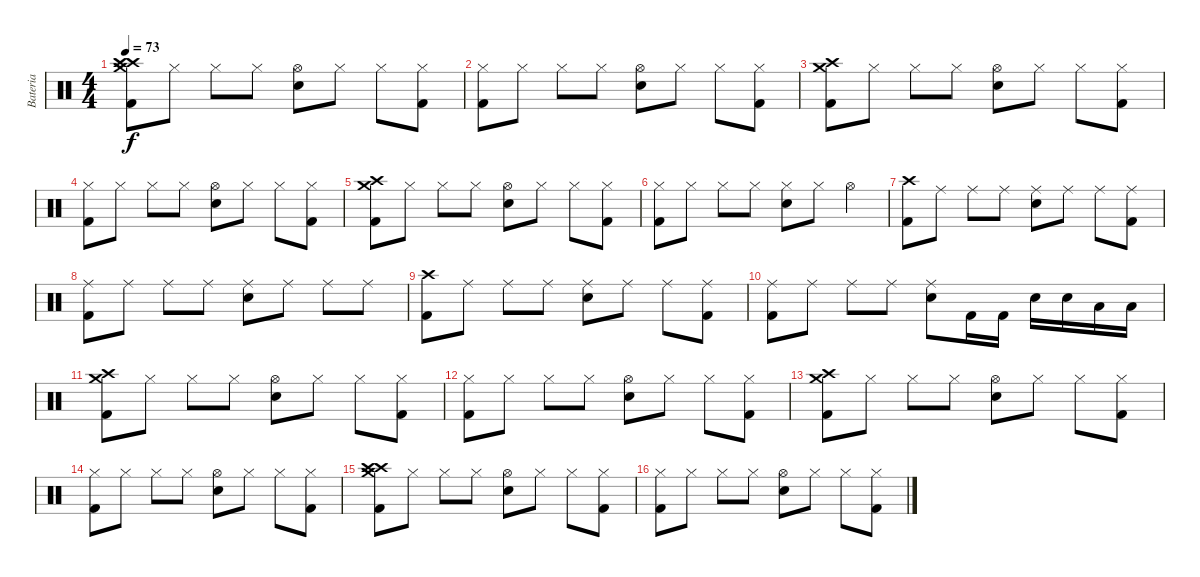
\track ("Bateria" "Bateria") {instrument percussion}
\staff {score}
\articulation defaults
\ts (4 4)
\tempo 73
\clef neutral
\ks c
("Crash high (hit)" "Crash high (hit)" "Crash medium (hit)" "Kick (hit) 2").8{dy f} "Hi-Hat (closed)".8 "Hi-Hat (closed)".8 "Hi-Hat (closed)".8 ("Hi-Hat (open)" "Snare (hit) 2").8 "Hi-Hat (closed)".8 "Hi-Hat (closed)".8 ("Hi-Hat (closed)" "Kick (hit) 2").8 |
("Hi-Hat (closed)" "Kick (hit) 2").8 "Hi-Hat (closed)".8 "Hi-Hat (closed)".8 "Hi-Hat (closed)".8 ("Hi-Hat (open)" "Snare (hit) 2").8 "Hi-Hat (closed)".8 "Hi-Hat (closed)".8 ("Hi-Hat (closed)" "Kick (hit) 2").8 |
("Crash high (hit)" "Crash medium (hit)" "Kick (hit) 2").8 "Hi-Hat (closed)".8 "Hi-Hat (closed)".8 "Hi-Hat (closed)".8 ("Hi-Hat (open)" "Snare (hit) 2").8 "Hi-Hat (closed)".8 "Hi-Hat (closed)".8 ("Hi-Hat (closed)" "Kick (hit) 2").8 |
("Hi-Hat (closed)" "Kick (hit) 2").8 "Hi-Hat (closed)".8 "Hi-Hat (closed)".8 "Hi-Hat (closed)".8 ("Hi-Hat (open)" "Snare (hit) 2").8 "Hi-Hat (closed)".8 "Hi-Hat (closed)".8 ("Hi-Hat (closed)" "Kick (hit) 2").8 |
("Crash high (hit)" "Crash medium (hit)" "Kick (hit) 2").8 "Hi-Hat (closed)".8 "Hi-Hat (closed)".8 "Hi-Hat (closed)".8 ("Hi-Hat (open)" "Snare (hit) 2").8 "Hi-Hat (closed)".8 "Hi-Hat (closed)".8 ("Hi-Hat (closed)" "Kick (hit) 2").8 |
("Hi-Hat (closed)" "Kick (hit) 2").8 "Hi-Hat (closed)".8 "Hi-Hat (closed)".8 "Hi-Hat (closed)".8 ("Hi-Hat (closed)" "Snare (hit) 2").8 "Hi-Hat (closed)".8 "Hi-Hat (open)".4 |
("Crash high (hit)" "Kick (hit) 2").8 "Ride (middle)".8 "Ride (middle)".8 "Ride (middle)".8 ("Ride (middle)" "Snare (hit) 2").8 "Ride (middle)".8 "Ride (middle)".8 ("Ride (middle)" "Kick (hit) 2").8 |
("Ride (middle)" "Kick (hit) 2").8 "Ride (middle)".8 "Ride (middle)".8 "Ride (middle)".8 ("Ride (middle)" "Snare (hit) 2").8 "Ride (middle)".8 "Ride (middle)".8 "Ride (middle)".8 |
("Crash high (hit)" "Kick (hit) 2").8 "Ride (middle)".8 "Ride (middle)".8 "Ride (middle)".8 ("Ride (middle)" "Snare (hit) 2").8 "Ride (middle)".8 "Ride (middle)".8 ("Ride (middle)" "Kick (hit) 2").8 |
("Ride (middle)" "Kick (hit) 2").8 "Ride (middle)".8 "Ride (middle)".8 "Ride (middle)".8 ("Ride (middle)" "Snare (hit) 2").8 "Kick (hit) 2".16 "Kick (hit) 2".16 "Snare (hit) 2".16 "Snare (hit) 2".16 "Low Tom (hit)".16 "Low Tom (hit)".16 |
("Crash high (hit)" "Crash medium (hit)" "Kick (hit) 2").8 "Hi-Hat (closed)".8 "Hi-Hat (closed)".8 "Hi-Hat (closed)".8 ("Hi-Hat (open)" "Snare (hit) 2").8 "Hi-Hat (closed)".8 "Hi-Hat (closed)".8 ("Hi-Hat (closed)" "Kick (hit) 2").8 |
("Hi-Hat (closed)" "Kick (hit) 2").8 "Hi-Hat (closed)".8 "Hi-Hat (closed)".8 "Hi-Hat (closed)".8 ("Hi-Hat (open)" "Snare (hit) 2").8 "Hi-Hat (closed)".8 "Hi-Hat (closed)".8 ("Hi-Hat (closed)" "Kick (hit) 2").8 |
("Crash high (hit)" "Crash medium (hit)" "Kick (hit) 2").8 "Hi-Hat (closed)".8 "Hi-Hat (closed)".8 "Hi-Hat (closed)".8 ("Hi-Hat (open)" "Snare (hit) 2").8 "Hi-Hat (closed)".8 "Hi-Hat (closed)".8 ("Hi-Hat (closed)" "Kick (hit) 2").8 |
("Hi-Hat (closed)" "Kick (hit) 2").8 "Hi-Hat (closed)".8 "Hi-Hat (closed)".8 "Hi-Hat (closed)".8 ("Hi-Hat (open)" "Snare (hit) 2").8 "Hi-Hat (closed)".8 "Hi-Hat (closed)".8 ("Hi-Hat (closed)" "Kick (hit) 2").8 |
("Crash high (hit)" "Crash high (hit)" "Crash medium (hit)" "Kick (hit) 2").8 "Hi-Hat (closed)".8 "Hi-Hat (closed)".8 "Hi-Hat (closed)".8 ("Hi-Hat (open)" "Snare (hit) 2").8 "Hi-Hat (closed)".8 "Hi-Hat (closed)".8 ("Hi-Hat (closed)" "Kick (hit) 2").8 |
("Hi-Hat (closed)" "Kick (hit) 2").8 "Hi-Hat (closed)".8 "Hi-Hat (closed)".8 "Hi-Hat (closed)".8 ("Hi-Hat (open)" "Snare (hit) 2").8 "Hi-Hat (closed)".8 "Hi-Hat (closed)".8 ("Hi-Hat (closed)" "Kick (hit) 2").8
